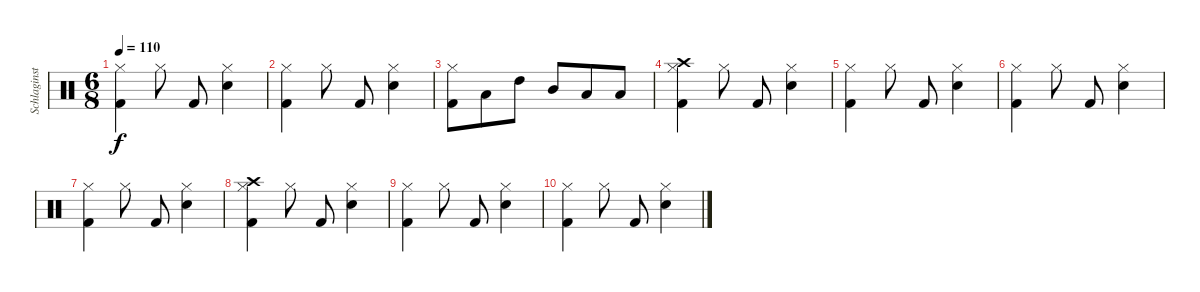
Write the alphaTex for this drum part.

\track ("Schlaginstrumente - Auswahl" "Schlaginst") {instrument percussion}
\staff {score}
\articulation defaults
\ts (6 8)
\tempo 110
\clef neutral
\ks c
("Hi-Hat (closed)" "Kick (hit) 2").4{dy f} "Hi-Hat (closed)".8 "Kick (hit) 2".8 ("Hi-Hat (closed)" "Snare (hit) 2").4 |
("Hi-Hat (closed)" "Kick (hit) 2").4 "Hi-Hat (closed)".8 "Kick (hit) 2".8 ("Hi-Hat (closed)" "Snare (hit) 2").4 |
("Hi-Hat (closed)" "Kick (hit) 2").8 "Low Tom (hit)".8 "High Tom (hit)".8 "Mid Tom (hit)".8 "Low Tom (hit)".8 "Low Tom (hit)".8 |
("Crash high (hit)" "Hi-Hat (closed)" "Kick (hit) 2").4 "Hi-Hat (closed)".8 "Kick (hit) 2".8 ("Hi-Hat (closed)" "Snare (hit) 2").4 |
("Hi-Hat (closed)" "Kick (hit) 2").4 "Hi-Hat (closed)".8 "Kick (hit) 2".8 ("Hi-Hat (closed)" "Snare (hit) 2").4 |
("Hi-Hat (closed)" "Kick (hit) 2").4 "Hi-Hat (closed)".8 "Kick (hit) 2".8 ("Hi-Hat (closed)" "Snare (hit) 2").4 |
("Hi-Hat (closed)" "Kick (hit) 2").4 "Hi-Hat (closed)".8 "Kick (hit) 2".8 ("Hi-Hat (closed)" "Snare (hit) 2").4 |
("Crash high (hit)" "Hi-Hat (closed)" "Kick (hit) 2").4 "Hi-Hat (closed)".8 "Kick (hit) 2".8 ("Hi-Hat (closed)" "Snare (hit) 2").4 |
("Hi-Hat (closed)" "Kick (hit) 2").4 "Hi-Hat (closed)".8 "Kick (hit) 2".8 ("Hi-Hat (closed)" "Snare (hit) 2").4 |
("Hi-Hat (closed)" "Kick (hit) 2").4 "Hi-Hat (closed)".8 "Kick (hit) 2".8 ("Hi-Hat (closed)" "Snare (hit) 2").4
